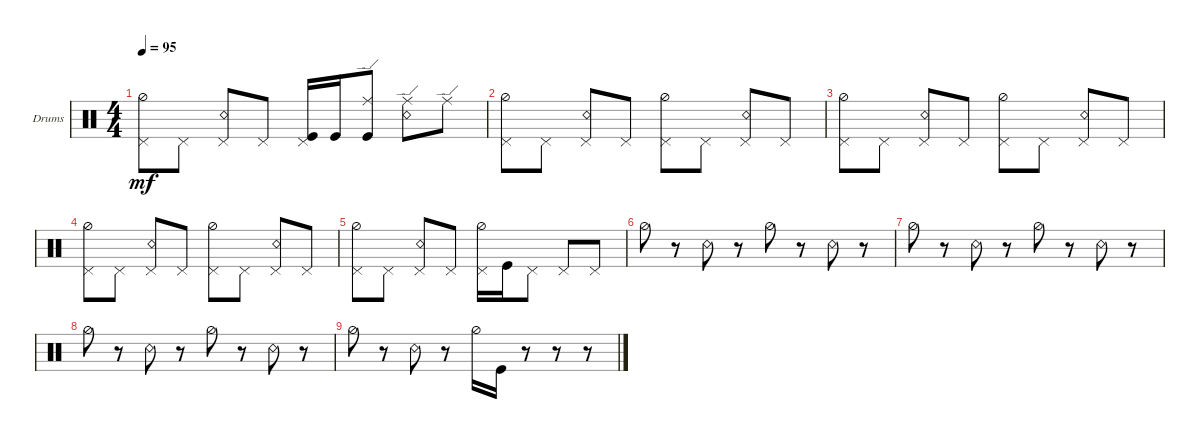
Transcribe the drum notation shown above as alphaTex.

\bracketExtendMode groupsimilarinstruments
\firstSystemTrackNameOrientation horizontal
\otherSystemsTrackNameOrientation horizontal
\track ("Drumkit" "Drums") {instrument percussion}
\staff {score}
\articulation defaults
\ts (4 4)
\tempo 95
\clef neutral
\ks c
("Pedal Hi-Hat (hit)" "Hi-Hat (half)").8{dy mf} "Pedal Hi-Hat (hit)".8 ("Pedal Hi-Hat (hit)" "Snare (rim shot)").8 "Pedal Hi-Hat (hit)".8 ("Pedal Hi-Hat (hit)" "Kick (hit)").16 "Kick (hit)".16 ("Kick (hit)" "Ride (edge)").8 ("Snare (rim shot)" "Ride (edge)").8 "Ride (edge)".8 |
("Pedal Hi-Hat (hit)" "Hi-Hat (half)").8 "Pedal Hi-Hat (hit)".8 ("Pedal Hi-Hat (hit)" "Snare (rim shot)").8 "Pedal Hi-Hat (hit)".8 ("Pedal Hi-Hat (hit)" "Hi-Hat (half)").8 "Pedal Hi-Hat (hit)".8 ("Pedal Hi-Hat (hit)" "Snare (rim shot)").8 "Pedal Hi-Hat (hit)".8 |
("Pedal Hi-Hat (hit)" "Hi-Hat (half)").8 "Pedal Hi-Hat (hit)".8 ("Pedal Hi-Hat (hit)" "Snare (rim shot)").8 "Pedal Hi-Hat (hit)".8 ("Pedal Hi-Hat (hit)" "Hi-Hat (half)").8 "Pedal Hi-Hat (hit)".8 ("Pedal Hi-Hat (hit)" "Snare (rim shot)").8 "Pedal Hi-Hat (hit)".8 |
("Pedal Hi-Hat (hit)" "Hi-Hat (half)").8 "Pedal Hi-Hat (hit)".8 ("Pedal Hi-Hat (hit)" "Snare (rim shot)").8 "Pedal Hi-Hat (hit)".8 ("Pedal Hi-Hat (hit)" "Hi-Hat (half)").8 "Pedal Hi-Hat (hit)".8 ("Pedal Hi-Hat (hit)" "Snare (rim shot)").8 "Pedal Hi-Hat (hit)".8 |
("Pedal Hi-Hat (hit)" "Hi-Hat (half)").8 "Pedal Hi-Hat (hit)".8 ("Pedal Hi-Hat (hit)" "Snare (rim shot)").8 "Pedal Hi-Hat (hit)".8 ("Pedal Hi-Hat (hit)" "Hi-Hat (half)").16 "Kick (hit)".16 "Pedal Hi-Hat (hit)".8 "Pedal Hi-Hat (hit)".8 "Pedal Hi-Hat (hit)".8 |
"Hi-Hat (half)".8 r.8 "Snare (rim shot)".8 r.8 "Hi-Hat (half)".8 r.8 "Snare (rim shot)".8 r.8 |
"Hi-Hat (half)".8 r.8 "Snare (rim shot)".8 r.8 "Hi-Hat (half)".8 r.8 "Snare (rim shot)".8 r.8 |
"Hi-Hat (half)".8 r.8 "Snare (rim shot)".8 r.8 "Hi-Hat (half)".8 r.8 "Snare (rim shot)".8 r.8 |
"Hi-Hat (half)".8 r.8 "Snare (rim shot)".8 r.8 "Hi-Hat (half)".16 "Kick (hit)".16 r.8 r.8 r.8
